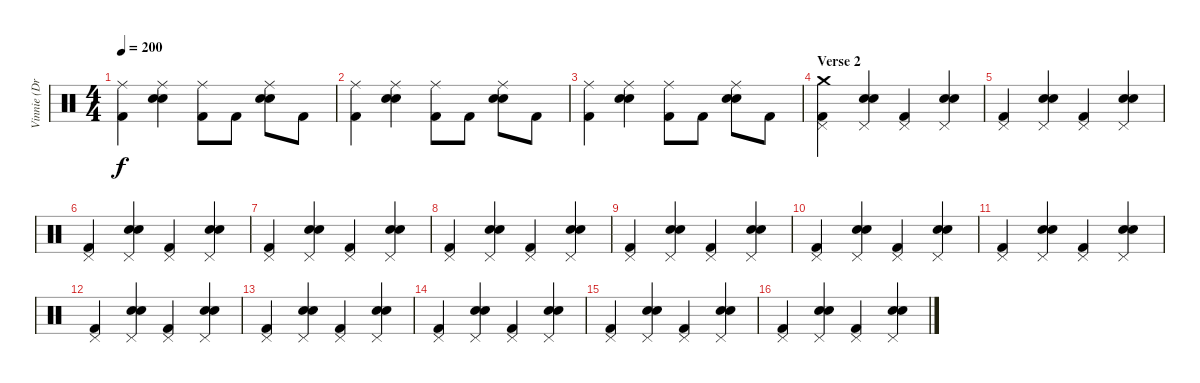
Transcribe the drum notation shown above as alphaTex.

\track ("Vinnie (Drums)" "Vinnie (Dr") {instrument percussion}
\staff {score}
\articulation defaults
\ts (4 4)
\tempo 200
\clef neutral
\ks c
("Kick (hit) 2" "Ride (middle)").4{dy f} ("Snare (hit) 2" "Electric Snare (hit)" "Ride (middle)").4 ("Kick (hit) 2" "Ride (middle)").8 "Kick (hit) 2".8 ("Snare (hit) 2" "Electric Snare (hit)" "Ride (middle)").8 "Kick (hit) 2".8 |
("Kick (hit) 2" "Ride (middle)").4 ("Snare (hit) 2" "Electric Snare (hit)" "Ride (middle)").4 ("Kick (hit) 2" "Ride (middle)").8 "Kick (hit) 2".8 ("Snare (hit) 2" "Electric Snare (hit)" "Ride (middle)").8 "Kick (hit) 2".8 |
("Kick (hit) 2" "Ride (middle)").4 ("Snare (hit) 2" "Electric Snare (hit)" "Ride (middle)").4 ("Kick (hit) 2" "Ride (middle)").8 "Kick (hit) 2".8 ("Snare (hit) 2" "Electric Snare (hit)" "Ride (middle)").8 "Kick (hit) 2".8 |
\section ("" "Verse 2")
("Kick (hit) 2" "Pedal Hi-Hat (hit)" "Crash medium (hit)").4 ("Snare (hit) 2" "Electric Snare (hit)" "Pedal Hi-Hat (hit)").4 ("Kick (hit) 2" "Pedal Hi-Hat (hit)").4 ("Snare (hit) 2" "Electric Snare (hit)" "Pedal Hi-Hat (hit)").4 |
("Kick (hit) 2" "Pedal Hi-Hat (hit)").4 ("Snare (hit) 2" "Electric Snare (hit)" "Pedal Hi-Hat (hit)").4 ("Kick (hit) 2" "Pedal Hi-Hat (hit)").4 ("Snare (hit) 2" "Electric Snare (hit)" "Pedal Hi-Hat (hit)").4 |
("Kick (hit) 2" "Pedal Hi-Hat (hit)").4 ("Snare (hit) 2" "Electric Snare (hit)" "Pedal Hi-Hat (hit)").4 ("Kick (hit) 2" "Pedal Hi-Hat (hit)").4 ("Snare (hit) 2" "Electric Snare (hit)" "Pedal Hi-Hat (hit)").4 |
("Kick (hit) 2" "Pedal Hi-Hat (hit)").4 ("Snare (hit) 2" "Electric Snare (hit)" "Pedal Hi-Hat (hit)").4 ("Kick (hit) 2" "Pedal Hi-Hat (hit)").4 ("Snare (hit) 2" "Electric Snare (hit)" "Pedal Hi-Hat (hit)").4 |
("Kick (hit) 2" "Pedal Hi-Hat (hit)").4 ("Snare (hit) 2" "Electric Snare (hit)" "Pedal Hi-Hat (hit)").4 ("Kick (hit) 2" "Pedal Hi-Hat (hit)").4 ("Snare (hit) 2" "Electric Snare (hit)" "Pedal Hi-Hat (hit)").4 |
("Kick (hit) 2" "Pedal Hi-Hat (hit)").4 ("Snare (hit) 2" "Electric Snare (hit)" "Pedal Hi-Hat (hit)").4 ("Kick (hit) 2" "Pedal Hi-Hat (hit)").4 ("Snare (hit) 2" "Electric Snare (hit)" "Pedal Hi-Hat (hit)").4 |
("Kick (hit) 2" "Pedal Hi-Hat (hit)").4 ("Snare (hit) 2" "Electric Snare (hit)" "Pedal Hi-Hat (hit)").4 ("Kick (hit) 2" "Pedal Hi-Hat (hit)").4 ("Snare (hit) 2" "Electric Snare (hit)" "Pedal Hi-Hat (hit)").4 |
("Kick (hit) 2" "Pedal Hi-Hat (hit)").4 ("Snare (hit) 2" "Electric Snare (hit)" "Pedal Hi-Hat (hit)").4 ("Kick (hit) 2" "Pedal Hi-Hat (hit)").4 ("Snare (hit) 2" "Electric Snare (hit)" "Pedal Hi-Hat (hit)").4 |
("Kick (hit) 2" "Pedal Hi-Hat (hit)").4 ("Snare (hit) 2" "Electric Snare (hit)" "Pedal Hi-Hat (hit)").4 ("Kick (hit) 2" "Pedal Hi-Hat (hit)").4 ("Snare (hit) 2" "Electric Snare (hit)" "Pedal Hi-Hat (hit)").4 |
("Kick (hit) 2" "Pedal Hi-Hat (hit)").4 ("Snare (hit) 2" "Electric Snare (hit)" "Pedal Hi-Hat (hit)").4 ("Kick (hit) 2" "Pedal Hi-Hat (hit)").4 ("Snare (hit) 2" "Electric Snare (hit)" "Pedal Hi-Hat (hit)").4 |
("Kick (hit) 2" "Pedal Hi-Hat (hit)").4 ("Snare (hit) 2" "Electric Snare (hit)" "Pedal Hi-Hat (hit)").4 ("Kick (hit) 2" "Pedal Hi-Hat (hit)").4 ("Snare (hit) 2" "Electric Snare (hit)" "Pedal Hi-Hat (hit)").4 |
("Kick (hit) 2" "Pedal Hi-Hat (hit)").4 ("Snare (hit) 2" "Electric Snare (hit)" "Pedal Hi-Hat (hit)").4 ("Kick (hit) 2" "Pedal Hi-Hat (hit)").4 ("Snare (hit) 2" "Electric Snare (hit)" "Pedal Hi-Hat (hit)").4 |
("Kick (hit) 2" "Pedal Hi-Hat (hit)").4 ("Snare (hit) 2" "Electric Snare (hit)" "Pedal Hi-Hat (hit)").4 ("Kick (hit) 2" "Pedal Hi-Hat (hit)").4 ("Snare (hit) 2" "Electric Snare (hit)" "Pedal Hi-Hat (hit)").4
